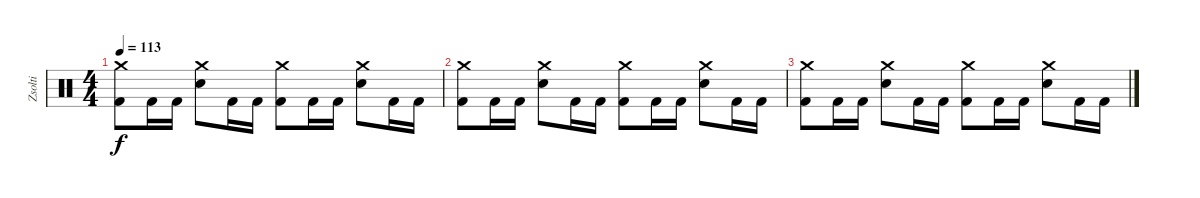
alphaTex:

\track ("Zsolti" "Zsolti") {instrument percussion}
\staff {score}
\articulation defaults
\ts (4 4)
\tempo 113
\clef neutral
\ks c
("Crash medium (hit)" "Kick (hit) 2").8{dy f} "Kick (hit) 2".16 "Kick (hit) 2".16 ("Crash medium (hit)" "Snare (hit) 2").8 "Kick (hit) 2".16 "Kick (hit) 2".16 ("Crash medium (hit)" "Kick (hit) 2").8 "Kick (hit) 2".16 "Kick (hit) 2".16 ("Crash medium (hit)" "Snare (hit) 2").8 "Kick (hit) 2".16 "Kick (hit) 2".16 |
("Crash medium (hit)" "Kick (hit) 2").8 "Kick (hit) 2".16 "Kick (hit) 2".16 ("Crash medium (hit)" "Snare (hit) 2").8 "Kick (hit) 2".16 "Kick (hit) 2".16 ("Crash medium (hit)" "Kick (hit) 2").8 "Kick (hit) 2".16 "Kick (hit) 2".16 ("Crash medium (hit)" "Snare (hit) 2").8 "Kick (hit) 2".16 "Kick (hit) 2".16 |
("Crash medium (hit)" "Kick (hit) 2").8 "Kick (hit) 2".16 "Kick (hit) 2".16 ("Crash medium (hit)" "Snare (hit) 2").8 "Kick (hit) 2".16 "Kick (hit) 2".16 ("Crash medium (hit)" "Kick (hit) 2").8 "Kick (hit) 2".16 "Kick (hit) 2".16 ("Crash medium (hit)" "Snare (hit) 2").8 "Kick (hit) 2".16 "Kick (hit) 2".16
